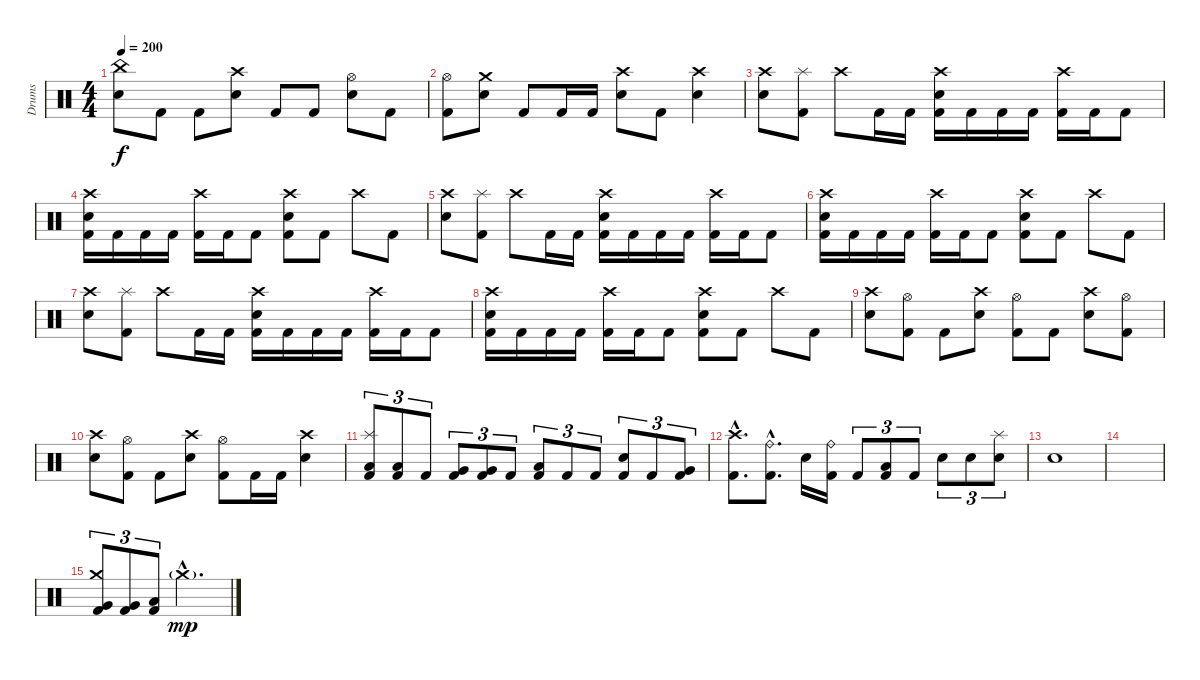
\track ("Drums" "Drums") {instrument percussion}
\staff {score}
\articulation defaults
\ts (4 4)
\tempo 200
\clef neutral
\ks c
("China (hit)" "Electric Snare (hit)").8{dy f} "Kick (hit) 2".8 "Kick (hit) 2".8 ("Crash high (hit)" "Electric Snare (hit)").8 "Kick (hit) 2".8 "Kick (hit) 2".8 ("Hi-Hat (open)" "Electric Snare (hit)").8 "Kick (hit) 2".8 |
("Hi-Hat (open)" "Kick (hit) 2").8 ("Crash medium (hit)" "Electric Snare (hit)").8 "Kick (hit) 2".8 "Kick (hit) 2".16 "Kick (hit) 2".16 ("Crash high (hit)" "Electric Snare (hit)").8 "Kick (hit) 2".8 ("Crash high (hit)" "Electric Snare (hit)").4 |
("Crash high (hit)" "Electric Snare (hit)").8 ("Splash (hit)" "Kick (hit) 2").8 "Crash high (hit)".8 "Kick (hit) 2".16 "Kick (hit) 2".16 ("Crash high (hit)" "Electric Snare (hit)" "Kick (hit) 2").16 "Kick (hit) 2".16 "Kick (hit) 2".16 "Kick (hit) 2".16 ("Crash high (hit)" "Kick (hit) 2").16 "Kick (hit) 2".16 "Kick (hit) 2".8 |
("Crash high (hit)" "Electric Snare (hit)" "Kick (hit) 2").16 "Kick (hit) 2".16 "Kick (hit) 2".16 "Kick (hit) 2".16 ("Crash high (hit)" "Kick (hit) 2").16 "Kick (hit) 2".16 "Kick (hit) 2".8 ("Crash high (hit)" "Electric Snare (hit)" "Kick (hit) 2").8 "Kick (hit) 2".8 "Crash high (hit)".8 "Kick (hit) 2".8 |
("Crash high (hit)" "Electric Snare (hit)").8 ("Splash (hit)" "Kick (hit) 2").8 "Crash high (hit)".8 "Kick (hit) 2".16 "Kick (hit) 2".16 ("Crash high (hit)" "Electric Snare (hit)" "Kick (hit) 2").16 "Kick (hit) 2".16 "Kick (hit) 2".16 "Kick (hit) 2".16 ("Crash high (hit)" "Kick (hit) 2").16 "Kick (hit) 2".16 "Kick (hit) 2".8 |
("Crash high (hit)" "Electric Snare (hit)" "Kick (hit) 2").16 "Kick (hit) 2".16 "Kick (hit) 2".16 "Kick (hit) 2".16 ("Crash high (hit)" "Kick (hit) 2").16 "Kick (hit) 2".16 "Kick (hit) 2".8 ("Crash high (hit)" "Electric Snare (hit)" "Kick (hit) 2").8 "Kick (hit) 2".8 "Crash high (hit)".8 "Kick (hit) 2".8 |
("Crash high (hit)" "Electric Snare (hit)").8 ("Splash (hit)" "Kick (hit) 2").8 "Crash high (hit)".8 "Kick (hit) 2".16 "Kick (hit) 2".16 ("Crash high (hit)" "Electric Snare (hit)" "Kick (hit) 2").16 "Kick (hit) 2".16 "Kick (hit) 2".16 "Kick (hit) 2".16 ("Crash high (hit)" "Kick (hit) 2").16 "Kick (hit) 2".16 "Kick (hit) 2".8 |
("Crash high (hit)" "Electric Snare (hit)" "Kick (hit) 2").16 "Kick (hit) 2".16 "Kick (hit) 2".16 "Kick (hit) 2".16 ("Crash high (hit)" "Kick (hit) 2").16 "Kick (hit) 2".16 "Kick (hit) 2".8 ("Crash high (hit)" "Electric Snare (hit)" "Kick (hit) 2").8 "Kick (hit) 2".8 "Crash high (hit)".8 "Kick (hit) 2".8 |
("Crash high (hit)" "Electric Snare (hit)").8 ("Hi-Hat (open)" "Kick (hit) 2").8 "Kick (hit) 2".8 ("Crash high (hit)" "Electric Snare (hit)").8 ("Hi-Hat (open)" "Kick (hit) 2").8 "Kick (hit) 2".8 ("Crash high (hit)" "Electric Snare (hit)").8 ("Hi-Hat (open)" "Kick (hit) 2").8 |
("Crash high (hit)" "Electric Snare (hit)").8 ("Hi-Hat (open)" "Kick (hit) 2").8 "Kick (hit) 2".8 ("Crash high (hit)" "Electric Snare (hit)").8 ("Hi-Hat (open)" "Kick (hit) 2").8 "Kick (hit) 2".16 "Kick (hit) 2".16 ("Crash high (hit)" "Electric Snare (hit)").4 |
("Splash (hit)" "Low Tom (hit)" "Kick (hit) 2").8{tu (3 2)} ("Low Tom (hit)" "Kick (hit) 2").8{tu (3 2)} "Kick (hit) 2".8{tu (3 2)} ("Very Low Tom (hit)" "Kick (hit) 2").8{tu (3 2)} ("Very Low Tom (hit)" "Kick (hit) 2").8{tu (3 2)} "Kick (hit) 2".8{tu (3 2)} ("Low Floor Tom (hit)" "Kick (hit) 2").8{tu (3 2)} "Kick (hit) 2".8{tu (3 2)} "Kick (hit) 2".8{tu (3 2)} ("Electric Snare (hit)" "Kick (hit) 2").8{tu (3 2)} "Kick (hit) 2".8{tu (3 2)} ("Very Low Tom (hit)" "Kick (hit) 2").8{tu (3 2)} |
("Crash high (hit)"{hac} "Kick (hit) 2"{hac}).8{d} ("Ride (bell)"{hac} "Kick (hit) 2"{hac}).8{d} "Electric Snare (hit)".16 ("Ride (bell)" "Kick (hit) 2").16 "Kick (hit) 2".8{tu (3 2)} ("Low Floor Tom (hit)" "Kick (hit) 2").8{tu (3 2)} "Kick (hit) 2".8{tu (3 2)} "Electric Snare (hit)".8{tu (3 2)} "Electric Snare (hit)".8{tu (3 2)} ("Splash (hit)" "Electric Snare (hit)").8{tu (3 2)} |
"Electric Snare (hit)".1 |
|
("Crash medium (hit)" "Very Low Tom (hit)" "Kick (hit) 2").8{tu (3 2)} ("Very Low Tom (hit)" "Kick (hit) 2").8{tu (3 2)} ("Low Floor Tom (hit)" "Kick (hit) 2").8{tu (3 2)} "Crash medium (hit)"{g hac}.2{d dy mp}
